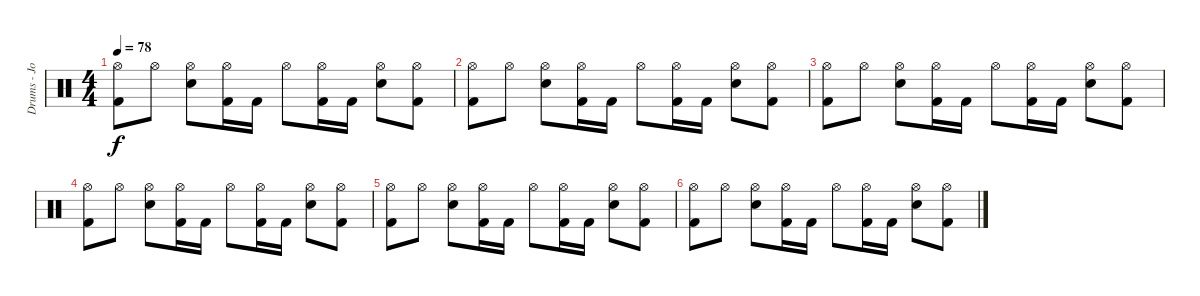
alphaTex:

\track ("Drums - Jorg Michael" "Drums - Jo") {instrument percussion}
\staff {score}
\articulation defaults
\ts (4 4)
\tempo 78
\clef neutral
\ks c
("Hi-Hat (open)" "Kick (hit) 2").8{dy f} "Hi-Hat (open)".8 ("Hi-Hat (open)" "Electric Snare (hit)").8 ("Hi-Hat (open)" "Kick (hit) 2").16 "Kick (hit) 2".16 "Hi-Hat (open)".8 ("Hi-Hat (open)" "Kick (hit) 2").16 "Kick (hit) 2".16 ("Hi-Hat (open)" "Electric Snare (hit)").8 ("Hi-Hat (open)" "Kick (hit) 2").8 |
("Hi-Hat (open)" "Kick (hit) 2").8 "Hi-Hat (open)".8 ("Hi-Hat (open)" "Electric Snare (hit)").8 ("Hi-Hat (open)" "Kick (hit) 2").16 "Kick (hit) 2".16 "Hi-Hat (open)".8 ("Hi-Hat (open)" "Kick (hit) 2").16 "Kick (hit) 2".16 ("Hi-Hat (open)" "Electric Snare (hit)").8 ("Hi-Hat (open)" "Kick (hit) 2").8 |
("Hi-Hat (open)" "Kick (hit) 2").8 "Hi-Hat (open)".8 ("Hi-Hat (open)" "Electric Snare (hit)").8 ("Hi-Hat (open)" "Kick (hit) 2").16 "Kick (hit) 2".16 "Hi-Hat (open)".8 ("Hi-Hat (open)" "Kick (hit) 2").16 "Kick (hit) 2".16 ("Hi-Hat (open)" "Electric Snare (hit)").8 ("Hi-Hat (open)" "Kick (hit) 2").8 |
("Hi-Hat (open)" "Kick (hit) 2").8 "Hi-Hat (open)".8 ("Hi-Hat (open)" "Electric Snare (hit)").8 ("Hi-Hat (open)" "Kick (hit) 2").16 "Kick (hit) 2".16 "Hi-Hat (open)".8 ("Hi-Hat (open)" "Kick (hit) 2").16 "Kick (hit) 2".16 ("Hi-Hat (open)" "Electric Snare (hit)").8 ("Hi-Hat (open)" "Kick (hit) 2").8 |
("Hi-Hat (open)" "Kick (hit) 2").8 "Hi-Hat (open)".8 ("Hi-Hat (open)" "Electric Snare (hit)").8 ("Hi-Hat (open)" "Kick (hit) 2").16 "Kick (hit) 2".16 "Hi-Hat (open)".8 ("Hi-Hat (open)" "Kick (hit) 2").16 "Kick (hit) 2".16 ("Hi-Hat (open)" "Electric Snare (hit)").8 ("Hi-Hat (open)" "Kick (hit) 2").8 |
("Hi-Hat (open)" "Kick (hit) 2").8 "Hi-Hat (open)".8 ("Hi-Hat (open)" "Electric Snare (hit)").8 ("Hi-Hat (open)" "Kick (hit) 2").16 "Kick (hit) 2".16 "Hi-Hat (open)".8 ("Hi-Hat (open)" "Kick (hit) 2").16 "Kick (hit) 2".16 ("Hi-Hat (open)" "Electric Snare (hit)").8 ("Hi-Hat (open)" "Kick (hit) 2").8
